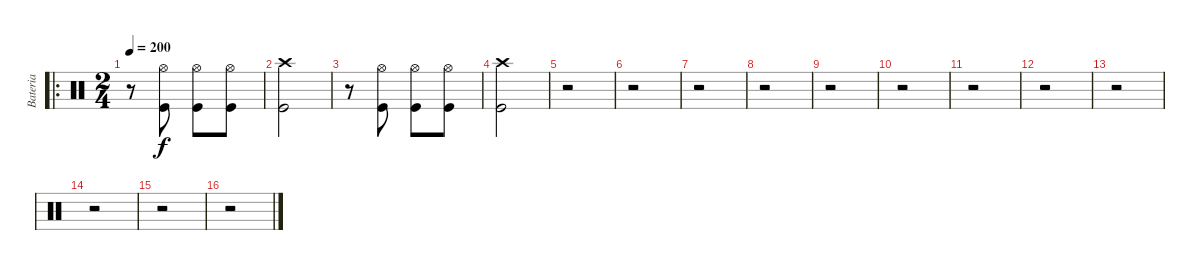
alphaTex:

\track ("Bateria" "Bateria") {instrument percussion}
\staff {score}
\articulation defaults
\ro
\ts (2 4)
\tempo 200
\clef neutral
\ks c
r.8{dy f} ("Kick (hit)" "Hi-Hat (open)").8 ("Kick (hit)" "Hi-Hat (open)").8 ("Kick (hit)" "Hi-Hat (open)").8 |
("Kick (hit)" "Crash high (hit)").2 |
r.8 ("Kick (hit)" "Hi-Hat (open)").8 ("Kick (hit)" "Hi-Hat (open)").8 ("Kick (hit)" "Hi-Hat (open)").8 |
("Kick (hit)" "Crash high (hit)").2 |
r.2 |
r.2 |
r.2 |
r.2 |
r.2 |
r.2 |
r.2 |
r.2 |
r.2 |
r.2 |
r.2 |
r.2
